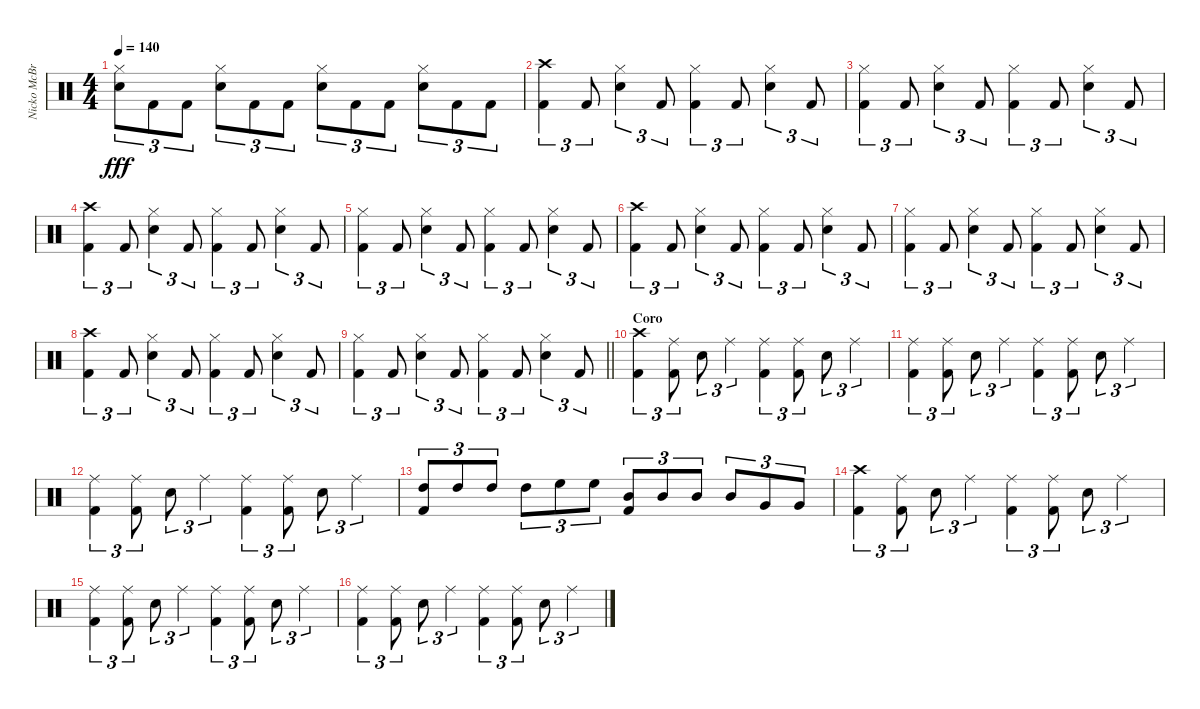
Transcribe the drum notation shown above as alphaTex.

\track ("Nicko McBrain" "Nicko McBr") {instrument percussion}
\staff {score}
\articulation defaults
\ts (4 4)
\tempo 140
\clef neutral
\ks c
("Hi-Hat (closed)" "Snare (hit) 2").8{tu (3 2) dy fff} "Kick (hit) 2".8{tu (3 2)} "Kick (hit) 2".8{tu (3 2)} ("Hi-Hat (closed)" "Snare (hit) 2").8{tu (3 2)} "Kick (hit) 2".8{tu (3 2)} "Kick (hit) 2".8{tu (3 2)} ("Hi-Hat (closed)" "Snare (hit) 2").8{tu (3 2)} "Kick (hit) 2".8{tu (3 2)} "Kick (hit) 2".8{tu (3 2)} ("Hi-Hat (closed)" "Snare (hit) 2").8{tu (3 2)} "Kick (hit) 2".8{tu (3 2)} "Kick (hit) 2".8{tu (3 2)} |
("Crash high (hit)" "Kick (hit) 2").4{tu (3 2)} "Kick (hit) 2".8{tu (3 2)} ("Hi-Hat (closed)" "Snare (hit) 2").4{tu (3 2)} "Kick (hit) 2".8{tu (3 2)} ("Kick (hit) 2" "Hi-Hat (closed)").4{tu (3 2)} "Kick (hit) 2".8{tu (3 2)} ("Hi-Hat (closed)" "Snare (hit) 2").4{tu (3 2)} "Kick (hit) 2".8{tu (3 2)} |
("Kick (hit) 2" "Hi-Hat (closed)").4{tu (3 2)} "Kick (hit) 2".8{tu (3 2)} ("Hi-Hat (closed)" "Snare (hit) 2").4{tu (3 2)} "Kick (hit) 2".8{tu (3 2)} ("Kick (hit) 2" "Hi-Hat (closed)").4{tu (3 2)} "Kick (hit) 2".8{tu (3 2)} ("Hi-Hat (closed)" "Snare (hit) 2").4{tu (3 2)} "Kick (hit) 2".8{tu (3 2)} |
("Crash high (hit)" "Kick (hit) 2").4{tu (3 2)} "Kick (hit) 2".8{tu (3 2)} ("Hi-Hat (closed)" "Snare (hit) 2").4{tu (3 2)} "Kick (hit) 2".8{tu (3 2)} ("Kick (hit) 2" "Hi-Hat (closed)").4{tu (3 2)} "Kick (hit) 2".8{tu (3 2)} ("Hi-Hat (closed)" "Snare (hit) 2").4{tu (3 2)} "Kick (hit) 2".8{tu (3 2)} |
("Kick (hit) 2" "Hi-Hat (closed)").4{tu (3 2)} "Kick (hit) 2".8{tu (3 2)} ("Hi-Hat (closed)" "Snare (hit) 2").4{tu (3 2)} "Kick (hit) 2".8{tu (3 2)} ("Kick (hit) 2" "Hi-Hat (closed)").4{tu (3 2)} "Kick (hit) 2".8{tu (3 2)} ("Hi-Hat (closed)" "Snare (hit) 2").4{tu (3 2)} "Kick (hit) 2".8{tu (3 2)} |
("Crash high (hit)" "Kick (hit) 2").4{tu (3 2)} "Kick (hit) 2".8{tu (3 2)} ("Hi-Hat (closed)" "Snare (hit) 2").4{tu (3 2)} "Kick (hit) 2".8{tu (3 2)} ("Kick (hit) 2" "Hi-Hat (closed)").4{tu (3 2)} "Kick (hit) 2".8{tu (3 2)} ("Hi-Hat (closed)" "Snare (hit) 2").4{tu (3 2)} "Kick (hit) 2".8{tu (3 2)} |
("Kick (hit) 2" "Hi-Hat (closed)").4{tu (3 2)} "Kick (hit) 2".8{tu (3 2)} ("Hi-Hat (closed)" "Snare (hit) 2").4{tu (3 2)} "Kick (hit) 2".8{tu (3 2)} ("Kick (hit) 2" "Hi-Hat (closed)").4{tu (3 2)} "Kick (hit) 2".8{tu (3 2)} ("Hi-Hat (closed)" "Snare (hit) 2").4{tu (3 2)} "Kick (hit) 2".8{tu (3 2)} |
("Crash high (hit)" "Kick (hit) 2").4{tu (3 2)} "Kick (hit) 2".8{tu (3 2)} ("Hi-Hat (closed)" "Snare (hit) 2").4{tu (3 2)} "Kick (hit) 2".8{tu (3 2)} ("Kick (hit) 2" "Hi-Hat (closed)").4{tu (3 2)} "Kick (hit) 2".8{tu (3 2)} ("Hi-Hat (closed)" "Snare (hit) 2").4{tu (3 2)} "Kick (hit) 2".8{tu (3 2)} |
\barLineRight lightlight
("Kick (hit) 2" "Hi-Hat (closed)").4{tu (3 2)} "Kick (hit) 2".8{tu (3 2)} ("Hi-Hat (closed)" "Snare (hit) 2").4{tu (3 2)} "Kick (hit) 2".8{tu (3 2)} ("Kick (hit) 2" "Hi-Hat (closed)").4{tu (3 2)} "Kick (hit) 2".8{tu (3 2)} ("Hi-Hat (closed)" "Snare (hit) 2").4{tu (3 2)} "Kick (hit) 2".8{tu (3 2)} |
\section ("" "Coro")
("Kick (hit) 2" "Crash high (hit)").4{tu (3 2)} ("Kick (hit) 2" "Ride (middle)").8{tu (3 2)} "Snare (hit) 2".8{tu (3 2)} "Ride (middle)".4{tu (3 2)} ("Kick (hit) 2" "Ride (middle)").4{tu (3 2)} ("Kick (hit) 2" "Ride (middle)").8{tu (3 2)} "Snare (hit) 2".8{tu (3 2)} "Ride (middle)".4{tu (3 2)} |
("Kick (hit) 2" "Ride (middle)").4{tu (3 2)} ("Kick (hit) 2" "Ride (middle)").8{tu (3 2)} "Snare (hit) 2".8{tu (3 2)} "Ride (middle)".4{tu (3 2)} ("Kick (hit) 2" "Ride (middle)").4{tu (3 2)} ("Kick (hit) 2" "Ride (middle)").8{tu (3 2)} "Snare (hit) 2".8{tu (3 2)} "Ride (middle)".4{tu (3 2)} |
("Kick (hit) 2" "Ride (middle)").4{tu (3 2)} ("Kick (hit) 2" "Ride (middle)").8{tu (3 2)} "Snare (hit) 2".8{tu (3 2)} "Ride (middle)".4{tu (3 2)} ("Kick (hit) 2" "Ride (middle)").4{tu (3 2)} ("Kick (hit) 2" "Ride (middle)").8{tu (3 2)} "Snare (hit) 2".8{tu (3 2)} "Ride (middle)".4{tu (3 2)} |
("Kick (hit) 2" "High Tom (hit)").8{tu (3 2)} "High Tom (hit)".8{tu (3 2)} "High Tom (hit)".8{tu (3 2)} "High Tom (hit)".8{tu (3 2)} "High Floor Tom (hit)".8{tu (3 2)} "High Floor Tom (hit)".8{tu (3 2)} ("Mid Tom (hit)" "Kick (hit) 2").8{tu (3 2)} "Mid Tom (hit)".8{tu (3 2)} "Mid Tom (hit)".8{tu (3 2)} "Mid Tom (hit)".8{tu (3 2)} "Very Low Tom (hit)".8{tu (3 2)} "Very Low Tom (hit)".8{tu (3 2)} |
("Kick (hit) 2" "Crash high (hit)").4{tu (3 2)} ("Kick (hit) 2" "Ride (middle)").8{tu (3 2)} "Snare (hit) 2".8{tu (3 2)} "Ride (middle)".4{tu (3 2)} ("Kick (hit) 2" "Ride (middle)").4{tu (3 2)} ("Kick (hit) 2" "Ride (middle)").8{tu (3 2)} "Snare (hit) 2".8{tu (3 2)} "Ride (middle)".4{tu (3 2)} |
("Kick (hit) 2" "Ride (middle)").4{tu (3 2)} ("Kick (hit) 2" "Ride (middle)").8{tu (3 2)} "Snare (hit) 2".8{tu (3 2)} "Ride (middle)".4{tu (3 2)} ("Kick (hit) 2" "Ride (middle)").4{tu (3 2)} ("Kick (hit) 2" "Ride (middle)").8{tu (3 2)} "Snare (hit) 2".8{tu (3 2)} "Ride (middle)".4{tu (3 2)} |
("Kick (hit) 2" "Ride (middle)").4{tu (3 2)} ("Kick (hit) 2" "Ride (middle)").8{tu (3 2)} "Snare (hit) 2".8{tu (3 2)} "Ride (middle)".4{tu (3 2)} ("Kick (hit) 2" "Ride (middle)").4{tu (3 2)} ("Kick (hit) 2" "Ride (middle)").8{tu (3 2)} "Snare (hit) 2".8{tu (3 2)} "Ride (middle)".4{tu (3 2)}
